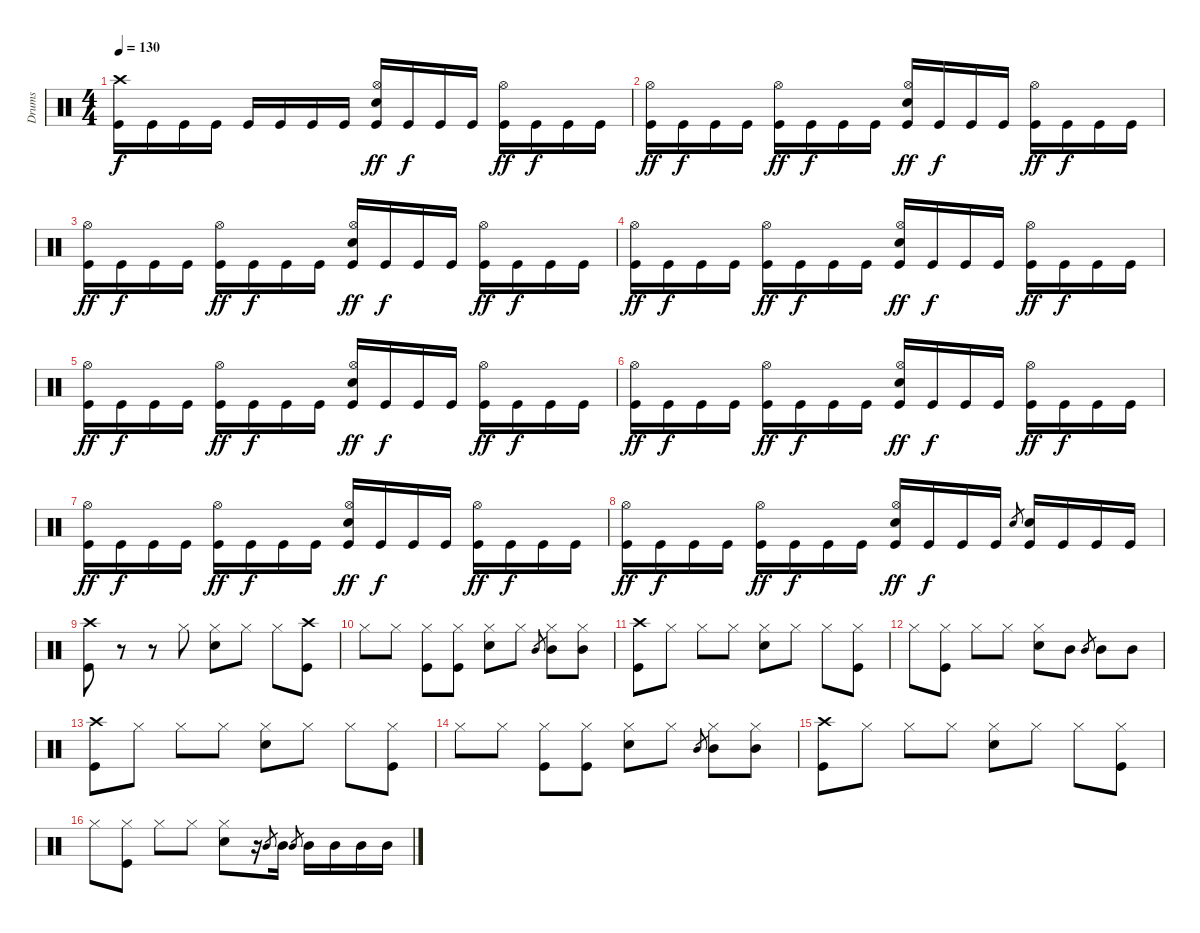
\track ("Drums" "Drums") {instrument percussion}
\staff {score}
\articulation defaults
\ts (4 4)
\tempo 130
\clef neutral
\ks c
("Crash high (hit)" "Kick (hit)").16{dy f} "Kick (hit)".16 "Kick (hit)".16 "Kick (hit)".16 "Kick (hit)".16 "Kick (hit)".16 "Kick (hit)".16 "Kick (hit)".16 ("Hi-Hat (open)" "Snare (hit) 2" "Kick (hit)").16{dy ff} "Kick (hit)".16{dy f} "Kick (hit)".16 "Kick (hit)".16 ("Hi-Hat (open)" "Kick (hit)").16{dy ff} "Kick (hit)".16{dy f} "Kick (hit)".16 "Kick (hit)".16 |
("Hi-Hat (open)" "Kick (hit)").16{dy ff} "Kick (hit)".16{dy f} "Kick (hit)".16 "Kick (hit)".16 ("Hi-Hat (open)" "Kick (hit)").16{dy ff} "Kick (hit)".16{dy f} "Kick (hit)".16 "Kick (hit)".16 ("Hi-Hat (open)" "Snare (hit) 2" "Kick (hit)").16{dy ff} "Kick (hit)".16{dy f} "Kick (hit)".16 "Kick (hit)".16 ("Hi-Hat (open)" "Kick (hit)").16{dy ff} "Kick (hit)".16{dy f} "Kick (hit)".16 "Kick (hit)".16 |
("Hi-Hat (open)" "Kick (hit)").16{dy ff} "Kick (hit)".16{dy f} "Kick (hit)".16 "Kick (hit)".16 ("Hi-Hat (open)" "Kick (hit)").16{dy ff} "Kick (hit)".16{dy f} "Kick (hit)".16 "Kick (hit)".16 ("Hi-Hat (open)" "Snare (hit) 2" "Kick (hit)").16{dy ff} "Kick (hit)".16{dy f} "Kick (hit)".16 "Kick (hit)".16 ("Hi-Hat (open)" "Kick (hit)").16{dy ff} "Kick (hit)".16{dy f} "Kick (hit)".16 "Kick (hit)".16 |
("Hi-Hat (open)" "Kick (hit)").16{dy ff} "Kick (hit)".16{dy f} "Kick (hit)".16 "Kick (hit)".16 ("Hi-Hat (open)" "Kick (hit)").16{dy ff} "Kick (hit)".16{dy f} "Kick (hit)".16 "Kick (hit)".16 ("Hi-Hat (open)" "Snare (hit) 2" "Kick (hit)").16{dy ff} "Kick (hit)".16{dy f} "Kick (hit)".16 "Kick (hit)".16 ("Hi-Hat (open)" "Kick (hit)").16{dy ff} "Kick (hit)".16{dy f} "Kick (hit)".16 "Kick (hit)".16 |
("Hi-Hat (open)" "Kick (hit)").16{dy ff} "Kick (hit)".16{dy f} "Kick (hit)".16 "Kick (hit)".16 ("Hi-Hat (open)" "Kick (hit)").16{dy ff} "Kick (hit)".16{dy f} "Kick (hit)".16 "Kick (hit)".16 ("Hi-Hat (open)" "Snare (hit) 2" "Kick (hit)").16{dy ff} "Kick (hit)".16{dy f} "Kick (hit)".16 "Kick (hit)".16 ("Hi-Hat (open)" "Kick (hit)").16{dy ff} "Kick (hit)".16{dy f} "Kick (hit)".16 "Kick (hit)".16 |
("Hi-Hat (open)" "Kick (hit)").16{dy ff} "Kick (hit)".16{dy f} "Kick (hit)".16 "Kick (hit)".16 ("Hi-Hat (open)" "Kick (hit)").16{dy ff} "Kick (hit)".16{dy f} "Kick (hit)".16 "Kick (hit)".16 ("Hi-Hat (open)" "Snare (hit) 2" "Kick (hit)").16{dy ff} "Kick (hit)".16{dy f} "Kick (hit)".16 "Kick (hit)".16 ("Hi-Hat (open)" "Kick (hit)").16{dy ff} "Kick (hit)".16{dy f} "Kick (hit)".16 "Kick (hit)".16 |
("Hi-Hat (open)" "Kick (hit)").16{dy ff} "Kick (hit)".16{dy f} "Kick (hit)".16 "Kick (hit)".16 ("Hi-Hat (open)" "Kick (hit)").16{dy ff} "Kick (hit)".16{dy f} "Kick (hit)".16 "Kick (hit)".16 ("Hi-Hat (open)" "Snare (hit) 2" "Kick (hit)").16{dy ff} "Kick (hit)".16{dy f} "Kick (hit)".16 "Kick (hit)".16 ("Hi-Hat (open)" "Kick (hit)").16{dy ff} "Kick (hit)".16{dy f} "Kick (hit)".16 "Kick (hit)".16 |
("Hi-Hat (open)" "Kick (hit)").16{dy ff} "Kick (hit)".16{dy f} "Kick (hit)".16 "Kick (hit)".16 ("Hi-Hat (open)" "Kick (hit)").16{dy ff} "Kick (hit)".16{dy f} "Kick (hit)".16 "Kick (hit)".16 ("Hi-Hat (open)" "Snare (hit) 2" "Kick (hit)").16{dy ff} "Kick (hit)".16{dy f} "Kick (hit)".16 "Kick (hit)".16 "Snare (hit) 2".8{gr} ("Snare (hit) 2" "Kick (hit)").16 "Kick (hit)".16 "Kick (hit)".16 "Kick (hit)".16 |
("Crash high (hit)" "Kick (hit)").8 r.8 r.8 "Hi-Hat (closed)".8 ("Hi-Hat (closed)" "Snare (hit) 2").8 "Hi-Hat (closed)".8 "Hi-Hat (closed)".8 ("Crash high (hit)" "Kick (hit)").8 |
"Hi-Hat (closed)".8 "Hi-Hat (closed)".8 ("Hi-Hat (closed)" "Kick (hit)").8 ("Hi-Hat (closed)" "Kick (hit)").8 ("Hi-Hat (closed)" "Snare (hit) 2").8 "Hi-Hat (closed)".8 "Mid Tom (hit)".8{gr} ("Hi-Hat (closed)" "Mid Tom (hit)").8 ("Hi-Hat (closed)" "Mid Tom (hit)").8 |
("Crash high (hit)" "Kick (hit)").8 "Hi-Hat (closed)".8 "Hi-Hat (closed)".8 "Hi-Hat (closed)".8 ("Hi-Hat (closed)" "Snare (hit) 2").8 "Hi-Hat (closed)".8 "Hi-Hat (closed)".8 ("Hi-Hat (closed)" "Kick (hit)").8 |
"Hi-Hat (closed)".8 ("Hi-Hat (closed)" "Kick (hit)").8 "Hi-Hat (closed)".8 "Hi-Hat (closed)".8 ("Hi-Hat (closed)" "Snare (hit) 2").8 "Mid Tom (hit)".8 "Mid Tom (hit)".8{gr} "Mid Tom (hit)".8 "Mid Tom (hit)".8 |
("Crash high (hit)" "Kick (hit)").8 "Hi-Hat (closed)".8 "Hi-Hat (closed)".8 "Hi-Hat (closed)".8 ("Hi-Hat (closed)" "Snare (hit) 2").8 "Hi-Hat (closed)".8 "Hi-Hat (closed)".8 ("Hi-Hat (closed)" "Kick (hit)").8 |
"Hi-Hat (closed)".8 "Hi-Hat (closed)".8 ("Hi-Hat (closed)" "Kick (hit)").8 ("Hi-Hat (closed)" "Kick (hit)").8 ("Hi-Hat (closed)" "Snare (hit) 2").8 "Hi-Hat (closed)".8 "Mid Tom (hit)".8{gr} ("Hi-Hat (closed)" "Mid Tom (hit)").8 ("Hi-Hat (closed)" "Mid Tom (hit)").8 |
("Crash high (hit)" "Kick (hit)").8 "Hi-Hat (closed)".8 "Hi-Hat (closed)".8 "Hi-Hat (closed)".8 ("Hi-Hat (closed)" "Snare (hit) 2").8 "Hi-Hat (closed)".8 "Hi-Hat (closed)".8 ("Hi-Hat (closed)" "Kick (hit)").8 |
"Hi-Hat (closed)".8 ("Hi-Hat (closed)" "Kick (hit)").8 "Hi-Hat (closed)".8 "Hi-Hat (closed)".8 ("Hi-Hat (closed)" "Snare (hit) 2").8 r.16 "Mid Tom (hit)".8{gr} "Mid Tom (hit)".16 "Mid Tom (hit)".8{gr} "Mid Tom (hit)".16 "Mid Tom (hit)".16 "Mid Tom (hit)".16 "Mid Tom (hit)".16
